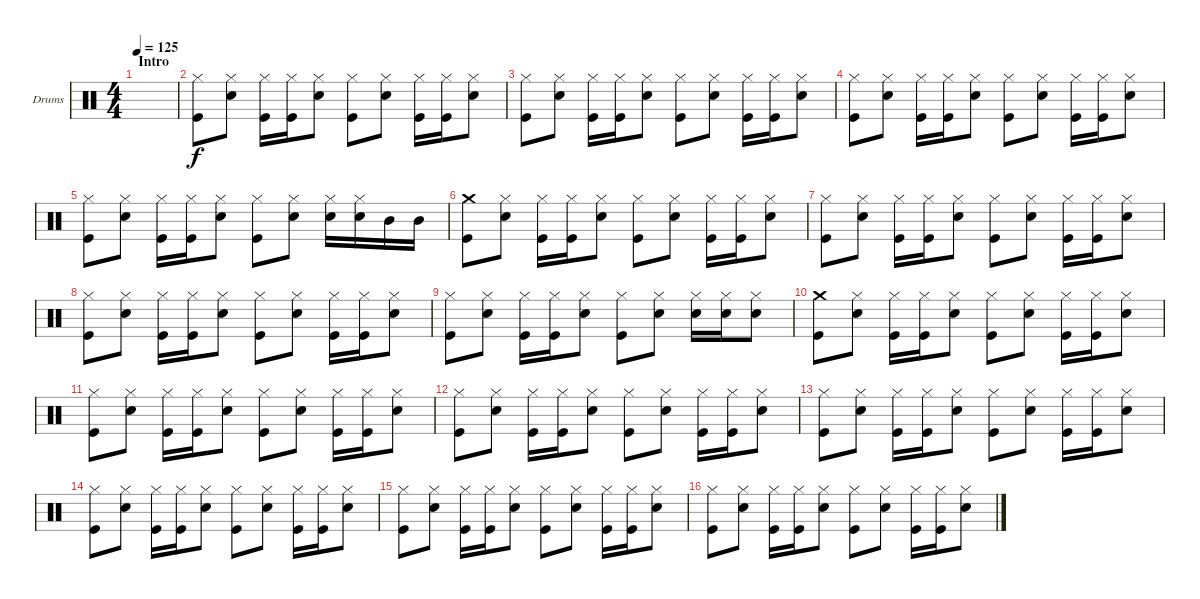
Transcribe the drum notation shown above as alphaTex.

\defaultSystemsLayout 4
\bracketExtendMode groupsimilarinstruments
\firstSystemTrackNameOrientation horizontal
\otherSystemsTrackNameOrientation horizontal
\track ("Drum" "Drums") {instrument percussion}
\staff {score}
\articulation defaults
\ts (4 4)
\section ("" "Intro")
\tempo 125
\clef neutral
\scale
0.474178
\ks c
|
\scale
0.262911 ("Hi-Hat (closed)" "Kick (hit)").8 ("Hi-Hat (closed)" "Snare (hit) 2").8 ("Hi-Hat (closed)" "Kick (hit)").16 ("Hi-Hat (closed)" "Kick (hit)").16 ("Hi-Hat (closed)" "Snare (hit) 2").8 ("Hi-Hat (closed)" "Kick (hit)").8 ("Hi-Hat (closed)" "Snare (hit) 2").8 ("Hi-Hat (closed)" "Kick (hit)").16 ("Hi-Hat (closed)" "Kick (hit)").16 ("Hi-Hat (closed)" "Snare (hit) 2").8 |
\scale
0.262911 ("Hi-Hat (closed)" "Kick (hit)").8 ("Hi-Hat (closed)" "Snare (hit) 2").8 ("Hi-Hat (closed)" "Kick (hit)").16 ("Hi-Hat (closed)" "Kick (hit)").16 ("Hi-Hat (closed)" "Snare (hit) 2").8 ("Hi-Hat (closed)" "Kick (hit)").8 ("Hi-Hat (closed)" "Snare (hit) 2").8 ("Hi-Hat (closed)" "Kick (hit)").16 ("Hi-Hat (closed)" "Kick (hit)").16 ("Hi-Hat (closed)" "Snare (hit) 2").8 |
\scale
0.333333 ("Hi-Hat (closed)" "Kick (hit)").8 ("Hi-Hat (closed)" "Snare (hit) 2").8 ("Hi-Hat (closed)" "Kick (hit)").16 ("Hi-Hat (closed)" "Kick (hit)").16 ("Hi-Hat (closed)" "Snare (hit) 2").8 ("Hi-Hat (closed)" "Kick (hit)").8 ("Hi-Hat (closed)" "Snare (hit) 2").8 ("Hi-Hat (closed)" "Kick (hit)").16 ("Hi-Hat (closed)" "Kick (hit)").16 ("Hi-Hat (closed)" "Snare (hit) 2").8 |
\scale
0.333333 ("Hi-Hat (closed)" "Kick (hit)").8 ("Hi-Hat (closed)" "Snare (hit) 2").8 ("Hi-Hat (closed)" "Kick (hit)").16 ("Hi-Hat (closed)" "Kick (hit)").16 ("Hi-Hat (closed)" "Snare (hit) 2").8 ("Hi-Hat (closed)" "Kick (hit)").8 ("Hi-Hat (closed)" "Snare (hit) 2").8 ("Hi-Hat (closed)" "Snare (hit) 2").16 ("Hi-Hat (closed)" "Snare (hit) 2").16 "Mid Tom (hit)".16 "Mid Tom (hit)".16 |
\scale
0.333333 ("Crash medium (hit)" "Kick (hit)").8 ("Hi-Hat (closed)" "Snare (hit) 2").8 ("Hi-Hat (closed)" "Kick (hit)").16 ("Hi-Hat (closed)" "Kick (hit)").16 ("Hi-Hat (closed)" "Snare (hit) 2").8 ("Hi-Hat (closed)" "Kick (hit)").8 ("Hi-Hat (closed)" "Snare (hit) 2").8 ("Hi-Hat (closed)" "Kick (hit)").16 ("Hi-Hat (closed)" "Kick (hit)").16 ("Hi-Hat (closed)" "Snare (hit) 2").8 |
\scale
0.333333 ("Hi-Hat (closed)" "Kick (hit)").8 ("Hi-Hat (closed)" "Snare (hit) 2").8 ("Hi-Hat (closed)" "Kick (hit)").16 ("Hi-Hat (closed)" "Kick (hit)").16 ("Hi-Hat (closed)" "Snare (hit) 2").8 ("Hi-Hat (closed)" "Kick (hit)").8 ("Hi-Hat (closed)" "Snare (hit) 2").8 ("Hi-Hat (closed)" "Kick (hit)").16 ("Hi-Hat (closed)" "Kick (hit)").16 ("Hi-Hat (closed)" "Snare (hit) 2").8 |
\scale
0.333333 ("Hi-Hat (closed)" "Kick (hit)").8 ("Hi-Hat (closed)" "Snare (hit) 2").8 ("Hi-Hat (closed)" "Kick (hit)").16 ("Hi-Hat (closed)" "Kick (hit)").16 ("Hi-Hat (closed)" "Snare (hit) 2").8 ("Hi-Hat (closed)" "Kick (hit)").8 ("Hi-Hat (closed)" "Snare (hit) 2").8 ("Hi-Hat (closed)" "Kick (hit)").16 ("Hi-Hat (closed)" "Kick (hit)").16 ("Hi-Hat (closed)" "Snare (hit) 2").8 |
\scale
0.333333 ("Hi-Hat (closed)" "Kick (hit)").8 ("Hi-Hat (closed)" "Snare (hit) 2").8 ("Hi-Hat (closed)" "Kick (hit)").16 ("Hi-Hat (closed)" "Kick (hit)").16 ("Hi-Hat (closed)" "Snare (hit) 2").8 ("Hi-Hat (closed)" "Kick (hit)").8 ("Hi-Hat (closed)" "Snare (hit) 2").8 ("Hi-Hat (closed)" "Snare (hit) 2").16 ("Hi-Hat (closed)" "Snare (hit) 2").16 ("Hi-Hat (closed)" "Snare (hit) 2").8 |
\scale
0.333333 ("Crash medium (hit)" "Kick (hit)").8 ("Hi-Hat (closed)" "Snare (hit) 2").8 ("Hi-Hat (closed)" "Kick (hit)").16 ("Hi-Hat (closed)" "Kick (hit)").16 ("Hi-Hat (closed)" "Snare (hit) 2").8 ("Hi-Hat (closed)" "Kick (hit)").8 ("Hi-Hat (closed)" "Snare (hit) 2").8 ("Hi-Hat (closed)" "Kick (hit)").16 ("Hi-Hat (closed)" "Kick (hit)").16 ("Hi-Hat (closed)" "Snare (hit) 2").8 |
\scale
0.333333 ("Hi-Hat (closed)" "Kick (hit)").8 ("Hi-Hat (closed)" "Snare (hit) 2").8 ("Hi-Hat (closed)" "Kick (hit)").16 ("Hi-Hat (closed)" "Kick (hit)").16 ("Hi-Hat (closed)" "Snare (hit) 2").8 ("Hi-Hat (closed)" "Kick (hit)").8 ("Hi-Hat (closed)" "Snare (hit) 2").8 ("Hi-Hat (closed)" "Kick (hit)").16 ("Hi-Hat (closed)" "Kick (hit)").16 ("Hi-Hat (closed)" "Snare (hit) 2").8 |
\scale
0.333333 ("Hi-Hat (closed)" "Kick (hit)").8 ("Hi-Hat (closed)" "Snare (hit) 2").8 ("Hi-Hat (closed)" "Kick (hit)").16 ("Hi-Hat (closed)" "Kick (hit)").16 ("Hi-Hat (closed)" "Snare (hit) 2").8 ("Hi-Hat (closed)" "Kick (hit)").8 ("Hi-Hat (closed)" "Snare (hit) 2").8 ("Hi-Hat (closed)" "Kick (hit)").16 ("Hi-Hat (closed)" "Kick (hit)").16 ("Hi-Hat (closed)" "Snare (hit) 2").8 |
\scale
0.333333 ("Hi-Hat (closed)" "Kick (hit)").8 ("Hi-Hat (closed)" "Snare (hit) 2").8 ("Hi-Hat (closed)" "Kick (hit)").16 ("Hi-Hat (closed)" "Kick (hit)").16 ("Hi-Hat (closed)" "Snare (hit) 2").8 ("Hi-Hat (closed)" "Kick (hit)").8 ("Hi-Hat (closed)" "Snare (hit) 2").8 ("Hi-Hat (closed)" "Kick (hit)").16 ("Hi-Hat (closed)" "Kick (hit)").16 ("Hi-Hat (closed)" "Snare (hit) 2").8 |
\scale
0.333333 ("Hi-Hat (closed)" "Kick (hit)").8 ("Hi-Hat (closed)" "Snare (hit) 2").8 ("Hi-Hat (closed)" "Kick (hit)").16 ("Hi-Hat (closed)" "Kick (hit)").16 ("Hi-Hat (closed)" "Snare (hit) 2").8 ("Hi-Hat (closed)" "Kick (hit)").8 ("Hi-Hat (closed)" "Snare (hit) 2").8 ("Hi-Hat (closed)" "Kick (hit)").16 ("Hi-Hat (closed)" "Kick (hit)").16 ("Hi-Hat (closed)" "Snare (hit) 2").8 |
\scale
0.333333 ("Hi-Hat (closed)" "Kick (hit)").8 ("Hi-Hat (closed)" "Snare (hit) 2").8 ("Hi-Hat (closed)" "Kick (hit)").16 ("Hi-Hat (closed)" "Kick (hit)").16 ("Hi-Hat (closed)" "Snare (hit) 2").8 ("Hi-Hat (closed)" "Kick (hit)").8 ("Hi-Hat (closed)" "Snare (hit) 2").8 ("Hi-Hat (closed)" "Kick (hit)").16 ("Hi-Hat (closed)" "Kick (hit)").16 ("Hi-Hat (closed)" "Snare (hit) 2").8 |
("Hi-Hat (closed)" "Kick (hit)").8 ("Hi-Hat (closed)" "Snare (hit) 2").8 ("Hi-Hat (closed)" "Kick (hit)").16 ("Hi-Hat (closed)" "Kick (hit)").16 ("Hi-Hat (closed)" "Snare (hit) 2").8 ("Hi-Hat (closed)" "Kick (hit)").8 ("Hi-Hat (closed)" "Snare (hit) 2").8 ("Hi-Hat (closed)" "Kick (hit)").16 ("Hi-Hat (closed)" "Kick (hit)").16 ("Hi-Hat (closed)" "Snare (hit) 2").8
